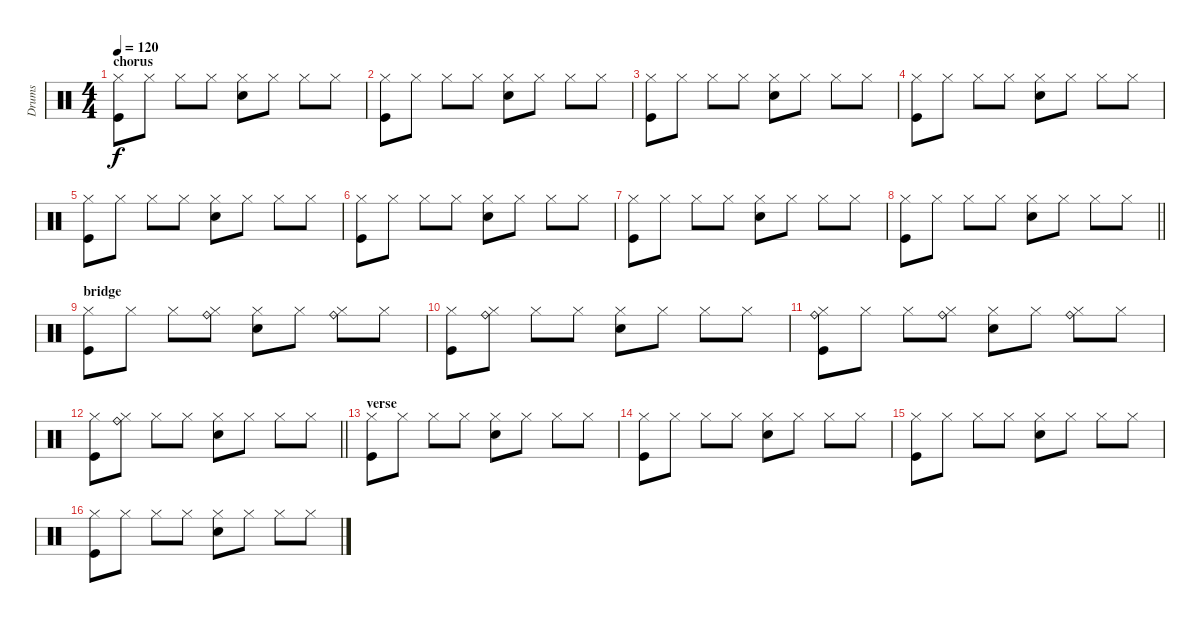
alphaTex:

\track ("Drums" "Drums") {instrument percussion}
\staff {score}
\articulation defaults
\ts (4 4)
\section ("" "chorus")
\tempo 120
\clef neutral
\ks c
("Hi-Hat (closed)" "Kick (hit)").8{dy f} "Hi-Hat (closed)".8 "Hi-Hat (closed)".8 "Hi-Hat (closed)".8 ("Hi-Hat (closed)" "Snare (hit) 2").8 "Hi-Hat (closed)".8 "Hi-Hat (closed)".8 "Hi-Hat (closed)".8 |
("Hi-Hat (closed)" "Kick (hit)").8 "Hi-Hat (closed)".8 "Hi-Hat (closed)".8 "Hi-Hat (closed)".8 ("Hi-Hat (closed)" "Snare (hit) 2").8 "Hi-Hat (closed)".8 "Hi-Hat (closed)".8 "Hi-Hat (closed)".8 |
("Hi-Hat (closed)" "Kick (hit)").8 "Hi-Hat (closed)".8 "Hi-Hat (closed)".8 "Hi-Hat (closed)".8 ("Hi-Hat (closed)" "Snare (hit) 2").8 "Hi-Hat (closed)".8 "Hi-Hat (closed)".8 "Hi-Hat (closed)".8 |
("Hi-Hat (closed)" "Kick (hit)").8 "Hi-Hat (closed)".8 "Hi-Hat (closed)".8 "Hi-Hat (closed)".8 ("Hi-Hat (closed)" "Snare (hit) 2").8 "Hi-Hat (closed)".8 "Hi-Hat (closed)".8 "Hi-Hat (closed)".8 |
("Hi-Hat (closed)" "Kick (hit)").8 "Hi-Hat (closed)".8 "Hi-Hat (closed)".8 "Hi-Hat (closed)".8 ("Hi-Hat (closed)" "Snare (hit) 2").8 "Hi-Hat (closed)".8 "Hi-Hat (closed)".8 "Hi-Hat (closed)".8 |
("Hi-Hat (closed)" "Kick (hit)").8 "Hi-Hat (closed)".8 "Hi-Hat (closed)".8 "Hi-Hat (closed)".8 ("Hi-Hat (closed)" "Snare (hit) 2").8 "Hi-Hat (closed)".8 "Hi-Hat (closed)".8 "Hi-Hat (closed)".8 |
("Hi-Hat (closed)" "Kick (hit)").8 "Hi-Hat (closed)".8 "Hi-Hat (closed)".8 "Hi-Hat (closed)".8 ("Hi-Hat (closed)" "Snare (hit) 2").8 "Hi-Hat (closed)".8 "Hi-Hat (closed)".8 "Hi-Hat (closed)".8 |
\barLineRight lightlight
("Hi-Hat (closed)" "Kick (hit)").8 "Hi-Hat (closed)".8 "Hi-Hat (closed)".8 "Hi-Hat (closed)".8 ("Hi-Hat (closed)" "Snare (hit) 2").8 "Hi-Hat (closed)".8 "Hi-Hat (closed)".8 "Hi-Hat (closed)".8 |
\section ("" "bridge")
("Hi-Hat (closed)" "Kick (hit)").8 "Hi-Hat (closed)".8 "Hi-Hat (closed)".8 ("Ride (bell)" "Hi-Hat (closed)").8 ("Hi-Hat (closed)" "Snare (hit) 2").8 "Hi-Hat (closed)".8 ("Ride (bell)" "Hi-Hat (closed)").8 "Hi-Hat (closed)".8 |
("Hi-Hat (closed)" "Kick (hit)").8 ("Ride (bell)" "Hi-Hat (closed)").8 "Hi-Hat (closed)".8 "Hi-Hat (closed)".8 ("Hi-Hat (closed)" "Snare (hit) 2").8 "Hi-Hat (closed)".8 "Hi-Hat (closed)".8 "Hi-Hat (closed)".8 |
("Ride (bell)" "Hi-Hat (closed)" "Kick (hit)").8 "Hi-Hat (closed)".8 "Hi-Hat (closed)".8 ("Ride (bell)" "Hi-Hat (closed)").8 ("Hi-Hat (closed)" "Snare (hit) 2").8 "Hi-Hat (closed)".8 ("Ride (bell)" "Hi-Hat (closed)").8 "Hi-Hat (closed)".8 |
\barLineRight lightlight
("Hi-Hat (closed)" "Kick (hit)").8 ("Ride (bell)" "Hi-Hat (closed)").8 "Hi-Hat (closed)".8 "Hi-Hat (closed)".8 ("Hi-Hat (closed)" "Snare (hit) 2").8 "Hi-Hat (closed)".8 "Hi-Hat (closed)".8 "Hi-Hat (closed)".8 |
\section ("" "verse")
("Hi-Hat (closed)" "Kick (hit)").8 "Hi-Hat (closed)".8 "Hi-Hat (closed)".8 "Hi-Hat (closed)".8 ("Hi-Hat (closed)" "Snare (hit) 2").8 "Hi-Hat (closed)".8 "Hi-Hat (closed)".8 "Hi-Hat (closed)".8 |
("Hi-Hat (closed)" "Kick (hit)").8 "Hi-Hat (closed)".8 "Hi-Hat (closed)".8 "Hi-Hat (closed)".8 ("Hi-Hat (closed)" "Snare (hit) 2").8 "Hi-Hat (closed)".8 "Hi-Hat (closed)".8 "Hi-Hat (closed)".8 |
("Hi-Hat (closed)" "Kick (hit)").8 "Hi-Hat (closed)".8 "Hi-Hat (closed)".8 "Hi-Hat (closed)".8 ("Hi-Hat (closed)" "Snare (hit) 2").8 "Hi-Hat (closed)".8 "Hi-Hat (closed)".8 "Hi-Hat (closed)".8 |
("Hi-Hat (closed)" "Kick (hit)").8 "Hi-Hat (closed)".8 "Hi-Hat (closed)".8 "Hi-Hat (closed)".8 ("Hi-Hat (closed)" "Snare (hit) 2").8 "Hi-Hat (closed)".8 "Hi-Hat (closed)".8 "Hi-Hat (closed)".8
